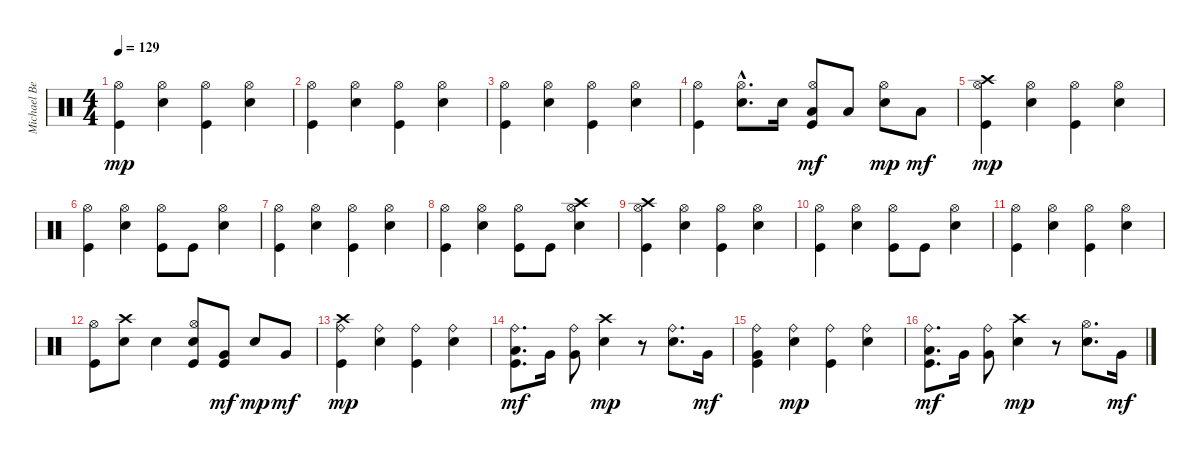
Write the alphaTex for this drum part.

\track ("Michael Beinham" "Michael Be") {instrument percussion}
\staff {score}
\articulation defaults
\ts (4 4)
\tempo 129
\clef neutral
\ks c
("Kick (hit)" "Hi-Hat (open)").4{dy mp} ("Snare (hit) 2" "Hi-Hat (open)").4 ("Kick (hit)" "Hi-Hat (open)").4 ("Snare (hit) 2" "Hi-Hat (open)").4 |
("Kick (hit)" "Hi-Hat (open)").4 ("Snare (hit) 2" "Hi-Hat (open)").4 ("Kick (hit)" "Hi-Hat (open)").4 ("Snare (hit) 2" "Hi-Hat (open)").4 |
("Kick (hit)" "Hi-Hat (open)").4 ("Snare (hit) 2" "Hi-Hat (open)").4 ("Kick (hit)" "Hi-Hat (open)").4 ("Snare (hit) 2" "Hi-Hat (open)").4 |
("Kick (hit)" "Hi-Hat (open)").4 ("Snare (hit) 2"{hac} "Hi-Hat (open)").8{d} "Snare (hit) 2".16 ("Kick (hit)" "Hi-Hat (open)" "Low Tom (hit)").8{dy mf} "Low Tom (hit)".8 ("Snare (hit) 2" "Hi-Hat (open)").8{dy mp} "Low Tom (hit)".8{dy mf} |
("Kick (hit)" "Hi-Hat (open)" "Crash high (hit)").4{dy mp} ("Snare (hit) 2" "Hi-Hat (open)").4 ("Kick (hit)" "Hi-Hat (open)").4 ("Snare (hit) 2" "Hi-Hat (open)").4 |
("Kick (hit)" "Hi-Hat (open)").4 ("Snare (hit) 2" "Hi-Hat (open)").4 ("Kick (hit)" "Hi-Hat (open)").8 "Kick (hit)".8 ("Snare (hit) 2" "Hi-Hat (open)").4 |
("Kick (hit)" "Hi-Hat (open)").4 ("Snare (hit) 2" "Hi-Hat (open)").4 ("Kick (hit)" "Hi-Hat (open)").4 ("Snare (hit) 2" "Hi-Hat (open)").4 |
("Kick (hit)" "Hi-Hat (open)").4 ("Snare (hit) 2" "Hi-Hat (open)").4 ("Kick (hit)" "Hi-Hat (open)").8 "Kick (hit)".8 ("Snare (hit) 2" "Hi-Hat (open)" "Crash high (hit)").4 |
("Kick (hit)" "Hi-Hat (open)" "Crash high (hit)").4 ("Snare (hit) 2" "Hi-Hat (open)").4 ("Kick (hit)" "Hi-Hat (open)").4 ("Snare (hit) 2" "Hi-Hat (open)").4 |
("Kick (hit)" "Hi-Hat (open)").4 ("Snare (hit) 2" "Hi-Hat (open)").4 ("Kick (hit)" "Hi-Hat (open)").8 "Kick (hit)".8 ("Snare (hit) 2" "Hi-Hat (open)").4 |
("Kick (hit)" "Hi-Hat (open)").4 ("Snare (hit) 2" "Hi-Hat (open)").4 ("Kick (hit)" "Hi-Hat (open)").4 ("Snare (hit) 2" "Hi-Hat (open)").4 |
("Kick (hit)" "Hi-Hat (open)").8 ("Snare (hit) 2" "Crash high (hit)").8 "Snare (hit) 2".4 ("Kick (hit)" "Snare (hit) 2" "Hi-Hat (open)").8 ("Kick (hit)" "Very Low Tom (hit)").8{dy mf} "Snare (hit) 2".8{dy mp} "Very Low Tom (hit)".8{dy mf} |
("Kick (hit)" "Ride (bell)" "Crash high (hit)").4{dy mp} ("Snare (hit) 2" "Ride (bell)").4 ("Kick (hit)" "Ride (bell)").4 ("Snare (hit) 2" "Ride (bell)").4 |
("Kick (hit)" "Ride (bell)" "Low Tom (hit)").8{d dy mf} "Very Low Tom (hit)".16 ("Ride (bell)" "Very Low Tom (hit)").8 ("Snare (hit) 2" "Crash high (hit)").4{dy mp} r.8 ("Snare (hit) 2" "Ride (bell)").8{d} "Very Low Tom (hit)".16{dy mf} |
("Kick (hit)" "Ride (bell)" "Very Low Tom (hit)").4 ("Snare (hit) 2" "Ride (bell)").4{dy mp} ("Kick (hit)" "Ride (bell)").4 ("Snare (hit) 2" "Ride (bell)").4 |
("Kick (hit)" "Ride (bell)" "Low Tom (hit)").8{d dy mf} "Very Low Tom (hit)".16 ("Ride (bell)" "Very Low Tom (hit)").8 ("Snare (hit) 2" "Crash high (hit)").4{dy mp} r.8 ("Snare (hit) 2" "Hi-Hat (open)").8{d} "Very Low Tom (hit)".16{dy mf}
